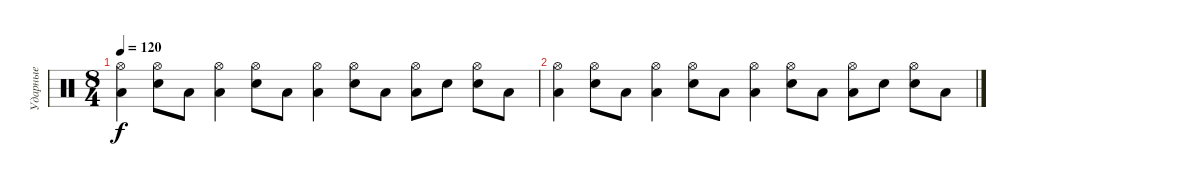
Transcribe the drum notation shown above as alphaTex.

\track ("Ударные" "Ударные") {instrument percussion}
\staff {score}
\articulation defaults
\ts (8 4)
\tempo 120
\clef neutral
\ks c
("Hi-Hat (open)" "Low Tom (hit)").4{dy f} ("Hi-Hat (open)" "Electric Snare (hit)").8 "Low Tom (hit)".8 ("Hi-Hat (open)" "Low Tom (hit)").4 ("Hi-Hat (open)" "Electric Snare (hit)").8 "Low Tom (hit)".8 ("Hi-Hat (open)" "Low Tom (hit)").4 ("Hi-Hat (open)" "Electric Snare (hit)").8 "Low Tom (hit)".8 ("Hi-Hat (open)" "Low Tom (hit)").8 "Electric Snare (hit)".8 ("Hi-Hat (open)" "Electric Snare (hit)").8 "Low Tom (hit)".8 |
("Hi-Hat (open)" "Low Tom (hit)").4 ("Hi-Hat (open)" "Electric Snare (hit)").8 "Low Tom (hit)".8 ("Hi-Hat (open)" "Low Tom (hit)").4 ("Hi-Hat (open)" "Electric Snare (hit)").8 "Low Tom (hit)".8 ("Hi-Hat (open)" "Low Tom (hit)").4 ("Hi-Hat (open)" "Electric Snare (hit)").8 "Low Tom (hit)".8 ("Hi-Hat (open)" "Low Tom (hit)").8 "Electric Snare (hit)".8 ("Hi-Hat (open)" "Electric Snare (hit)").8 "Low Tom (hit)".8
